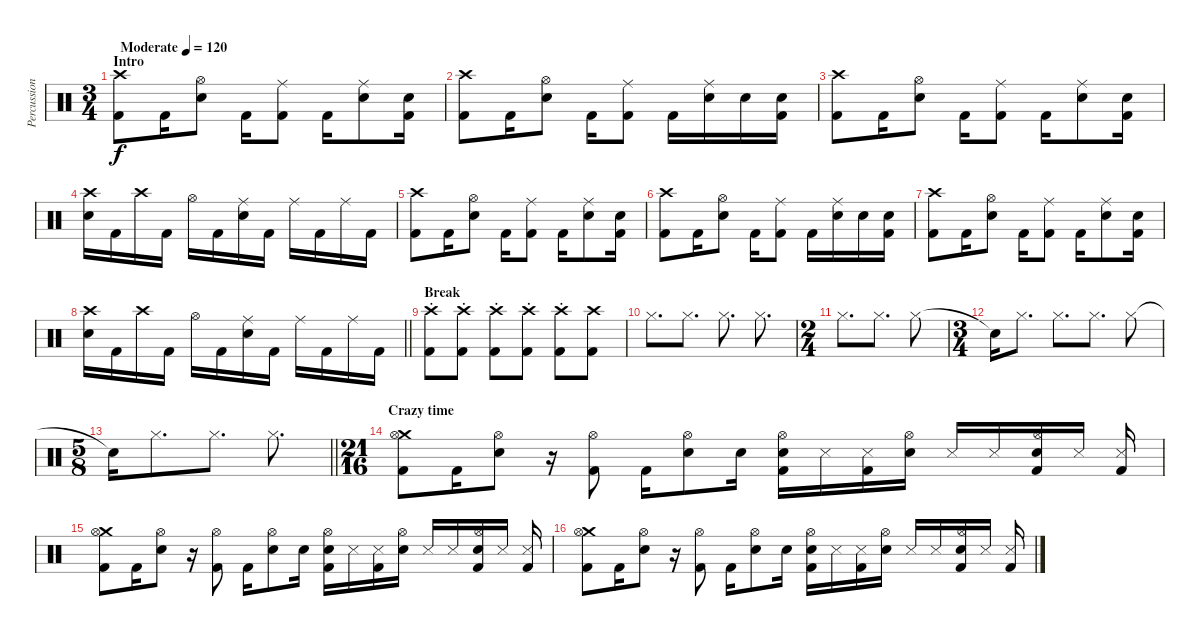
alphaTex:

\track ("Percussion" "Percussion") {instrument percussion}
\staff {score}
\articulation defaults
\ts (3 4)
\section ("" "Intro")
\tempo (120 "Moderate")
\clef neutral
\ks c
("Crash high (hit)" "Kick (hit) 2").8{dy f} "Kick (hit) 2".16 ("Hi-Hat (open)" "Snare (hit) 2").8 "Kick (hit) 2".16 ("Ride (middle)" "Kick (hit) 2").8 "Kick (hit) 2".16 ("Ride (middle)" "Snare (hit) 2").8 ("Snare (hit) 2" "Kick (hit) 2").16 |
("Crash high (hit)" "Kick (hit) 2").8 "Kick (hit) 2".16 ("Hi-Hat (open)" "Snare (hit) 2").8 "Kick (hit) 2".16 ("Ride (middle)" "Kick (hit) 2").8 "Kick (hit) 2".16 ("Ride (middle)" "Snare (hit) 2").16 "Snare (hit) 2".16 ("Snare (hit) 2" "Kick (hit) 2").16 |
("Crash high (hit)" "Kick (hit) 2").8 "Kick (hit) 2".16 ("Hi-Hat (open)" "Snare (hit) 2").8 "Kick (hit) 2".16 ("Ride (middle)" "Kick (hit) 2").8 "Kick (hit) 2".16 ("Ride (middle)" "Snare (hit) 2").8 ("Snare (hit) 2" "Kick (hit) 2").16 |
("Crash high (hit)" "Snare (hit) 2").16 "Kick (hit) 2".16 "Crash high (hit)".16 "Kick (hit) 2".16 "Hi-Hat (open)".16 "Kick (hit) 2".16 ("Ride (middle)" "Snare (hit) 2").16 "Kick (hit) 2".16 "Ride (middle)".16 "Kick (hit) 2".16 "Ride (middle)".16 "Kick (hit) 2".16 |
("Crash high (hit)" "Kick (hit) 2").8 "Kick (hit) 2".16 ("Hi-Hat (open)" "Snare (hit) 2").8 "Kick (hit) 2".16 ("Ride (middle)" "Kick (hit) 2").8 "Kick (hit) 2".16 ("Ride (middle)" "Snare (hit) 2").8 ("Snare (hit) 2" "Kick (hit) 2").16 |
("Crash high (hit)" "Kick (hit) 2").8 "Kick (hit) 2".16 ("Hi-Hat (open)" "Snare (hit) 2").8 "Kick (hit) 2".16 ("Ride (middle)" "Kick (hit) 2").8 "Kick (hit) 2".16 ("Ride (middle)" "Snare (hit) 2").16 "Snare (hit) 2".16 ("Snare (hit) 2" "Kick (hit) 2").16 |
("Crash high (hit)" "Kick (hit) 2").8 "Kick (hit) 2".16 ("Hi-Hat (open)" "Snare (hit) 2").8 "Kick (hit) 2".16 ("Ride (middle)" "Kick (hit) 2").8 "Kick (hit) 2".16 ("Ride (middle)" "Snare (hit) 2").8 ("Snare (hit) 2" "Kick (hit) 2").16 |
\barLineRight lightlight
("Crash high (hit)" "Snare (hit) 2").16 "Kick (hit) 2".16 "Crash high (hit)".16 "Kick (hit) 2".16 "Hi-Hat (open)".16 "Kick (hit) 2".16 ("Ride (middle)" "Snare (hit) 2").16 "Kick (hit) 2".16 "Ride (middle)".16 "Kick (hit) 2".16 "Ride (middle)".16 "Kick (hit) 2".16 |
\section ("" "Break")
("Crash high (hit)"{st} "Kick (hit) 2").8 ("Crash high (hit)"{st} "Kick (hit) 2").8 ("Crash high (hit)"{st} "Kick (hit) 2").8 ("Crash high (hit)"{st} "Kick (hit) 2").8 ("Crash high (hit)"{st} "Kick (hit) 2").8 ("Crash high (hit)" "Kick (hit) 2").8 |
"Hi-Hat (closed)".8{d} "Hi-Hat (closed)".8{d} "Hi-Hat (closed)".8{d} "Hi-Hat (closed)".8{d} |
\ts (2 4)
"Hi-Hat (closed)".8{d} "Hi-Hat (closed)".8{d} "Hi-Hat (closed)".8 |
\ts (3 4)
"Snare (hit)"{t}.16 "Hi-Hat (closed)".8{d} "Hi-Hat (closed)".8{d} "Hi-Hat (closed)".8{d} "Hi-Hat (closed)".8 |
\ts (5 8)
\barLineRight lightlight "Snare (hit)"{t}.16 "Hi-Hat (closed)".8{d} "Hi-Hat (closed)".8{d} "Hi-Hat (closed)".8{d}
|
\ts (21 16)
\section ("" "Crazy time")
("Crash medium (hit)" "Hi-Hat (open)" "Kick (hit) 2").8 "Kick (hit) 2".16 ("Hi-Hat (open)" "Snare (hit) 2").8 r.16 ("Hi-Hat (open)" "Kick (hit) 2").8 "Kick (hit) 2".16 ("Hi-Hat (open)" "Snare (hit) 2").8 "Snare (hit) 2".16 ("Hi-Hat (open)" "Snare (hit) 2" "Kick (hit) 2").16 "Snare (side stick) 3".16 ("Snare (side stick) 3" "Kick (hit) 2").16 ("Hi-Hat (open)" "Snare (hit) 2").16 "Snare (side stick) 3".16 "Snare (side stick) 3".16 ("Hi-Hat (open)" "Snare (hit) 2" "Kick (hit) 2").16 "Snare (side stick) 3".16 ("Snare (side stick) 3" "Kick (hit) 2").16 |
("Crash medium (hit)" "Hi-Hat (open)" "Kick (hit) 2").8 "Kick (hit) 2".16 ("Hi-Hat (open)" "Snare (hit) 2").8 r.16 ("Hi-Hat (open)" "Kick (hit) 2").8 "Kick (hit) 2".16 ("Hi-Hat (open)" "Snare (hit) 2").8 "Snare (hit) 2".16 ("Hi-Hat (open)" "Snare (hit) 2" "Kick (hit) 2").16 "Snare (side stick) 3".16 ("Snare (side stick) 3" "Kick (hit) 2").16 ("Hi-Hat (open)" "Snare (hit) 2").16 "Snare (side stick) 3".16 "Snare (side stick) 3".16 ("Hi-Hat (open)" "Snare (hit) 2" "Kick (hit) 2").16 "Snare (side stick) 3".16 ("Snare (side stick) 3" "Kick (hit) 2").16 |
("Crash medium (hit)" "Hi-Hat (open)" "Kick (hit) 2").8 "Kick (hit) 2".16 ("Hi-Hat (open)" "Snare (hit) 2").8 r.16 ("Hi-Hat (open)" "Kick (hit) 2").8 "Kick (hit) 2".16 ("Hi-Hat (open)" "Snare (hit) 2").8 "Snare (hit) 2".16 ("Hi-Hat (open)" "Snare (hit) 2" "Kick (hit) 2").16 "Snare (side stick) 3".16 ("Snare (side stick) 3" "Kick (hit) 2").16 ("Hi-Hat (open)" "Snare (hit) 2").16 "Snare (side stick) 3".16 "Snare (side stick) 3".16 ("Hi-Hat (open)" "Snare (hit) 2" "Kick (hit) 2").16 "Snare (side stick) 3".16 ("Snare (side stick) 3" "Kick (hit) 2").16
